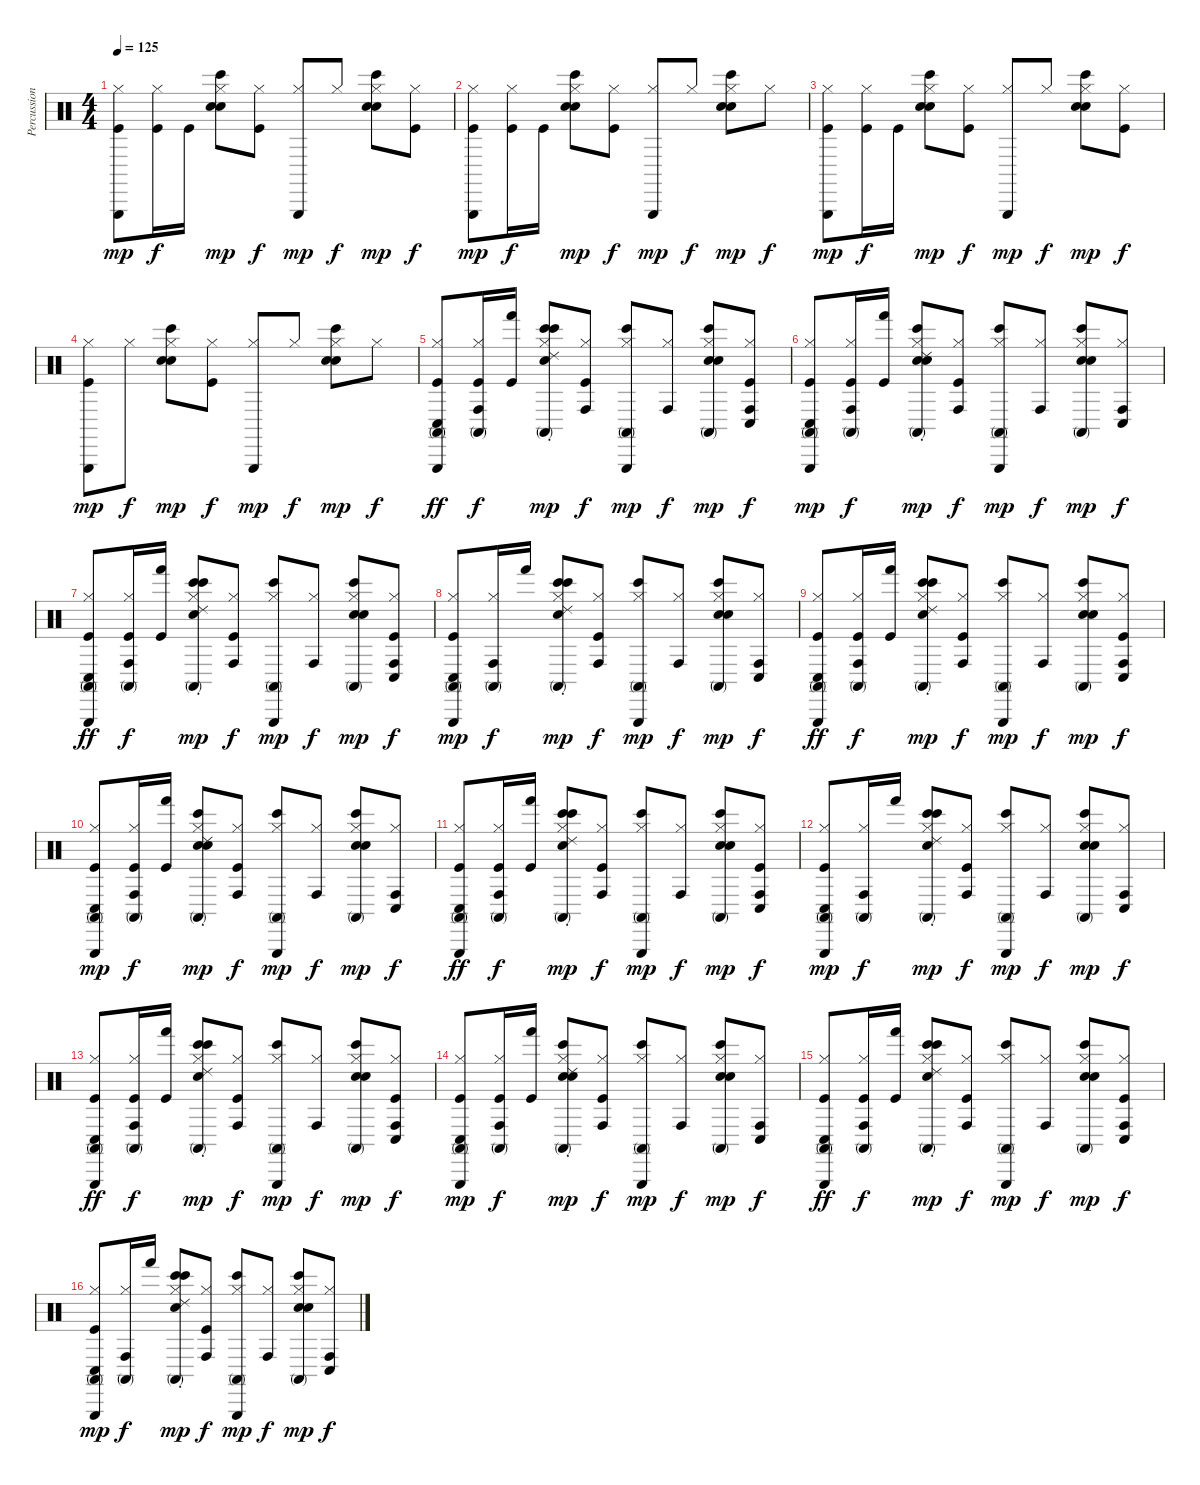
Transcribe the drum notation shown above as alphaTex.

\track ("Percussion" "Percussion") {instrument percussion}
\staff {score}
\articulation defaults
\ts (4 4)
\tempo 125
\clef neutral
\ks c
("Hi-Hat (closed)" "Triangle (hit)" "Kick (hit)").8{dy mp} ("Hi-Hat (closed)" "Kick (hit)").16{dy f} "Kick (hit)".16 ("Hi-Hat (closed)" "Electric Snare (hit)" "Bongo High (hit)" "Electric Snare (hit)").8{dy mp} ("Hi-Hat (closed)" "Kick (hit)").8{dy f} ("Hi-Hat (closed)" "Triangle (hit)").8{dy mp} "Hi-Hat (closed)".8{dy f} ("Hi-Hat (closed)" "Electric Snare (hit)" "Bongo High (hit)" "Electric Snare (hit)").8{dy mp} ("Hi-Hat (closed)" "Kick (hit)").8{dy f} |
("Hi-Hat (closed)" "Triangle (hit)" "Kick (hit)").8{dy mp} ("Hi-Hat (closed)" "Kick (hit)").16{dy f} "Kick (hit)".16 ("Hi-Hat (closed)" "Electric Snare (hit)" "Bongo High (hit)" "Electric Snare (hit)").8{dy mp} ("Hi-Hat (closed)" "Kick (hit)").8{dy f} ("Hi-Hat (closed)" "Triangle (hit)").8{dy mp} "Hi-Hat (closed)".8{dy f} ("Hi-Hat (closed)" "Electric Snare (hit)" "Bongo High (hit)" "Electric Snare (hit)").8{dy mp} "Hi-Hat (closed)".8{dy f} |
("Hi-Hat (closed)" "Triangle (hit)" "Kick (hit)").8{dy mp} ("Hi-Hat (closed)" "Kick (hit)").16{dy f} "Kick (hit)".16 ("Hi-Hat (closed)" "Electric Snare (hit)" "Bongo High (hit)" "Electric Snare (hit)").8{dy mp} ("Hi-Hat (closed)" "Kick (hit)").8{dy f} ("Hi-Hat (closed)" "Triangle (hit)").8{dy mp} "Hi-Hat (closed)".8{dy f} ("Hi-Hat (closed)" "Electric Snare (hit)" "Bongo High (hit)" "Electric Snare (hit)").8{dy mp} ("Hi-Hat (closed)" "Kick (hit)").8{dy f} |
("Hi-Hat (closed)" "Triangle (hit)" "Kick (hit)").8{dy mp} "Hi-Hat (closed)".8{dy f} ("Hi-Hat (closed)" "Electric Snare (hit)" "Bongo High (hit)" "Electric Snare (hit)").8{dy mp} ("Hi-Hat (closed)" "Kick (hit)").8{dy f} ("Hi-Hat (closed)" "Triangle (hit)").8{dy mp} "Hi-Hat (closed)".8{dy f} ("Hi-Hat (closed)" "Electric Snare (hit)" "Bongo High (hit)" "Electric Snare (hit)").8{dy mp} "Hi-Hat (closed)".8{dy f} |
("Hi-Hat (closed)" "Triangle (hit)" "Conga high (mute)" "Conga low (hit)" "Kick (hit)").8{dy ff} ("Hi-Hat (closed)" "Conga high (hit)" "Conga high (mute)" "Kick (hit)").16{dy f} ("Hand (hit)" "Kick (hit)").16 ("Hi-Hat (closed)" "Bongo High (hit)" "Bongo High (hit)" "Electric Snare (hit)" "Conga high (mute)" "Ride (choke) 2").8{dy mp} ("Hi-Hat (closed)" "Conga high (hit)" "Kick (hit)").8{dy f} ("Hi-Hat (closed)" "Triangle (hit)" "Bongo High (hit)" "Conga high (mute)").8{dy mp} ("Hi-Hat (closed)" "Conga high (hit)").8{dy f} ("Hi-Hat (closed)" "Electric Snare (hit)" "Bongo High (hit)" "Electric Snare (hit)" "Conga high (mute)").8{dy mp} ("Hi-Hat (closed)" "Conga low (hit)" "Conga high (hit)" "Kick (hit)").8{dy f} |
("Hi-Hat (closed)" "Triangle (hit)" "Conga high (mute)" "Conga low (hit)" "Kick (hit)").8{dy mp} ("Hi-Hat (closed)" "Conga high (hit)" "Conga high (mute)" "Kick (hit)").16{dy f} ("Hand (hit)" "Kick (hit)").16 ("Hi-Hat (closed)" "Electric Snare (hit)" "Bongo High (hit)" "Electric Snare (hit)" "Conga high (mute)" "Ride (choke) 2").8{dy mp} ("Hi-Hat (closed)" "Conga high (hit)" "Kick (hit)").8{dy f} ("Hi-Hat (closed)" "Triangle (hit)" "Conga high (mute)" "Bongo High (hit)").8{dy mp} ("Hi-Hat (closed)" "Conga high (hit)").8{dy f} ("Hi-Hat (closed)" "Electric Snare (hit)" "Bongo High (hit)" "Electric Snare (hit)" "Conga high (mute)").8{dy mp} ("Hi-Hat (closed)" "Conga high (hit)" "Conga low (hit)").8{dy f} |
("Hi-Hat (closed)" "Triangle (hit)" "Conga high (mute)" "Conga low (hit)" "Kick (hit)").8{dy ff} ("Hi-Hat (closed)" "Conga high (hit)" "Conga high (mute)" "Kick (hit)").16{dy f} ("Hand (hit)" "Kick (hit)").16 ("Hi-Hat (closed)" "Bongo High (hit)" "Bongo High (hit)" "Electric Snare (hit)" "Conga high (mute)" "Ride (choke) 2").8{dy mp} ("Hi-Hat (closed)" "Conga high (hit)" "Kick (hit)").8{dy f} ("Hi-Hat (closed)" "Triangle (hit)" "Bongo High (hit)" "Conga high (mute)").8{dy mp} ("Hi-Hat (closed)" "Conga high (hit)").8{dy f} ("Hi-Hat (closed)" "Electric Snare (hit)" "Bongo High (hit)" "Electric Snare (hit)" "Conga high (mute)").8{dy mp} ("Hi-Hat (closed)" "Conga low (hit)" "Conga high (hit)" "Kick (hit)").8{dy f} |
("Hi-Hat (closed)" "Triangle (hit)" "Conga high (mute)" "Conga low (hit)" "Kick (hit)").8{dy mp} ("Hi-Hat (closed)" "Conga high (hit)" "Conga high (mute)").16{dy f} "Hand (hit)".16 ("Hi-Hat (closed)" "Bongo High (hit)" "Bongo High (hit)" "Electric Snare (hit)" "Conga high (mute)" "Ride (choke) 2").8{dy mp} ("Hi-Hat (closed)" "Conga high (hit)" "Kick (hit)").8{dy f} ("Hi-Hat (closed)" "Triangle (hit)" "Conga high (mute)" "Bongo High (hit)").8{dy mp} ("Hi-Hat (closed)" "Conga high (hit)").8{dy f} ("Hi-Hat (closed)" "Electric Snare (hit)" "Bongo High (hit)" "Electric Snare (hit)" "Conga high (mute)").8{dy mp} ("Hi-Hat (closed)" "Conga high (hit)" "Conga low (hit)").8{dy f} |
("Hi-Hat (closed)" "Triangle (hit)" "Conga high (mute)" "Conga low (hit)" "Kick (hit)").8{dy ff} ("Hi-Hat (closed)" "Conga high (hit)" "Conga high (mute)" "Kick (hit)").16{dy f} ("Hand (hit)" "Kick (hit)").16 ("Hi-Hat (closed)" "Bongo High (hit)" "Bongo High (hit)" "Electric Snare (hit)" "Conga high (mute)" "Ride (choke) 2").8{dy mp} ("Hi-Hat (closed)" "Conga high (hit)" "Kick (hit)").8{dy f} ("Hi-Hat (closed)" "Triangle (hit)" "Bongo High (hit)" "Conga high (mute)").8{dy mp} ("Hi-Hat (closed)" "Conga high (hit)").8{dy f} ("Hi-Hat (closed)" "Electric Snare (hit)" "Bongo High (hit)" "Electric Snare (hit)" "Conga high (mute)").8{dy mp} ("Hi-Hat (closed)" "Conga low (hit)" "Conga high (hit)" "Kick (hit)").8{dy f} |
("Hi-Hat (closed)" "Triangle (hit)" "Conga high (mute)" "Conga low (hit)" "Kick (hit)").8{dy mp} ("Hi-Hat (closed)" "Conga high (hit)" "Conga high (mute)" "Kick (hit)").16{dy f} ("Hand (hit)" "Kick (hit)").16 ("Hi-Hat (closed)" "Electric Snare (hit)" "Bongo High (hit)" "Electric Snare (hit)" "Conga high (mute)" "Ride (choke) 2").8{dy mp} ("Hi-Hat (closed)" "Conga high (hit)" "Kick (hit)").8{dy f} ("Hi-Hat (closed)" "Triangle (hit)" "Conga high (mute)" "Bongo High (hit)").8{dy mp} ("Hi-Hat (closed)" "Conga high (hit)").8{dy f} ("Hi-Hat (closed)" "Electric Snare (hit)" "Bongo High (hit)" "Electric Snare (hit)" "Conga high (mute)").8{dy mp} ("Hi-Hat (closed)" "Conga high (hit)" "Conga low (hit)").8{dy f} |
("Hi-Hat (closed)" "Triangle (hit)" "Conga high (mute)" "Conga low (hit)" "Kick (hit)").8{dy ff} ("Hi-Hat (closed)" "Conga high (hit)" "Conga high (mute)" "Kick (hit)").16{dy f} ("Hand (hit)" "Kick (hit)").16 ("Hi-Hat (closed)" "Bongo High (hit)" "Bongo High (hit)" "Electric Snare (hit)" "Conga high (mute)" "Ride (choke) 2").8{dy mp} ("Hi-Hat (closed)" "Conga high (hit)" "Kick (hit)").8{dy f} ("Hi-Hat (closed)" "Triangle (hit)" "Bongo High (hit)" "Conga high (mute)").8{dy mp} ("Hi-Hat (closed)" "Conga high (hit)").8{dy f} ("Hi-Hat (closed)" "Electric Snare (hit)" "Bongo High (hit)" "Electric Snare (hit)" "Conga high (mute)").8{dy mp} ("Hi-Hat (closed)" "Conga low (hit)" "Conga high (hit)" "Kick (hit)").8{dy f} |
("Hi-Hat (closed)" "Triangle (hit)" "Conga high (mute)" "Conga low (hit)" "Kick (hit)").8{dy mp} ("Hi-Hat (closed)" "Conga high (hit)" "Conga high (mute)").16{dy f} "Hand (hit)".16 ("Hi-Hat (closed)" "Bongo High (hit)" "Bongo High (hit)" "Electric Snare (hit)" "Conga high (mute)" "Ride (choke) 2").8{dy mp} ("Hi-Hat (closed)" "Conga high (hit)" "Kick (hit)").8{dy f} ("Hi-Hat (closed)" "Triangle (hit)" "Conga high (mute)" "Bongo High (hit)").8{dy mp} ("Hi-Hat (closed)" "Conga high (hit)").8{dy f} ("Hi-Hat (closed)" "Electric Snare (hit)" "Bongo High (hit)" "Electric Snare (hit)" "Conga high (mute)").8{dy mp} ("Hi-Hat (closed)" "Conga high (hit)" "Conga low (hit)").8{dy f} |
("Hi-Hat (closed)" "Triangle (hit)" "Conga high (mute)" "Conga low (hit)" "Kick (hit)").8{dy ff} ("Hi-Hat (closed)" "Conga high (hit)" "Conga high (mute)" "Kick (hit)").16{dy f} ("Hand (hit)" "Kick (hit)").16 ("Hi-Hat (closed)" "Bongo High (hit)" "Bongo High (hit)" "Electric Snare (hit)" "Conga high (mute)" "Ride (choke) 2").8{dy mp} ("Hi-Hat (closed)" "Conga high (hit)" "Kick (hit)").8{dy f} ("Hi-Hat (closed)" "Triangle (hit)" "Bongo High (hit)" "Conga high (mute)").8{dy mp} ("Hi-Hat (closed)" "Conga high (hit)").8{dy f} ("Hi-Hat (closed)" "Electric Snare (hit)" "Bongo High (hit)" "Electric Snare (hit)" "Conga high (mute)").8{dy mp} ("Hi-Hat (closed)" "Conga low (hit)" "Conga high (hit)" "Kick (hit)").8{dy f} |
("Hi-Hat (closed)" "Triangle (hit)" "Conga high (mute)" "Conga low (hit)" "Kick (hit)").8{dy mp} ("Hi-Hat (closed)" "Conga high (hit)" "Conga high (mute)" "Kick (hit)").16{dy f} ("Hand (hit)" "Kick (hit)").16 ("Hi-Hat (closed)" "Electric Snare (hit)" "Bongo High (hit)" "Electric Snare (hit)" "Conga high (mute)" "Ride (choke) 2").8{dy mp} ("Hi-Hat (closed)" "Conga high (hit)" "Kick (hit)").8{dy f} ("Hi-Hat (closed)" "Triangle (hit)" "Conga high (mute)" "Bongo High (hit)").8{dy mp} ("Hi-Hat (closed)" "Conga high (hit)").8{dy f} ("Hi-Hat (closed)" "Electric Snare (hit)" "Bongo High (hit)" "Electric Snare (hit)" "Conga high (mute)").8{dy mp} ("Hi-Hat (closed)" "Conga high (hit)" "Conga low (hit)").8{dy f} |
("Hi-Hat (closed)" "Triangle (hit)" "Conga high (mute)" "Conga low (hit)" "Kick (hit)").8{dy ff} ("Hi-Hat (closed)" "Conga high (hit)" "Conga high (mute)" "Kick (hit)").16{dy f} ("Hand (hit)" "Kick (hit)").16 ("Hi-Hat (closed)" "Bongo High (hit)" "Bongo High (hit)" "Electric Snare (hit)" "Conga high (mute)" "Ride (choke) 2").8{dy mp} ("Hi-Hat (closed)" "Conga high (hit)" "Kick (hit)").8{dy f} ("Hi-Hat (closed)" "Triangle (hit)" "Bongo High (hit)" "Conga high (mute)").8{dy mp} ("Hi-Hat (closed)" "Conga high (hit)").8{dy f} ("Hi-Hat (closed)" "Electric Snare (hit)" "Bongo High (hit)" "Electric Snare (hit)" "Conga high (mute)").8{dy mp} ("Hi-Hat (closed)" "Conga low (hit)" "Conga high (hit)" "Kick (hit)").8{dy f} |
("Hi-Hat (closed)" "Triangle (hit)" "Conga high (mute)" "Conga low (hit)" "Kick (hit)").8{dy mp} ("Hi-Hat (closed)" "Conga high (hit)" "Conga high (mute)").16{dy f} "Hand (hit)".16 ("Hi-Hat (closed)" "Bongo High (hit)" "Bongo High (hit)" "Electric Snare (hit)" "Conga high (mute)" "Ride (choke) 2").8{dy mp} ("Hi-Hat (closed)" "Conga high (hit)" "Kick (hit)").8{dy f} ("Hi-Hat (closed)" "Triangle (hit)" "Conga high (mute)" "Bongo High (hit)").8{dy mp} ("Hi-Hat (closed)" "Conga high (hit)").8{dy f} ("Hi-Hat (closed)" "Electric Snare (hit)" "Bongo High (hit)" "Electric Snare (hit)" "Conga high (mute)").8{dy mp} ("Hi-Hat (closed)" "Conga high (hit)" "Conga low (hit)").8{dy f}
